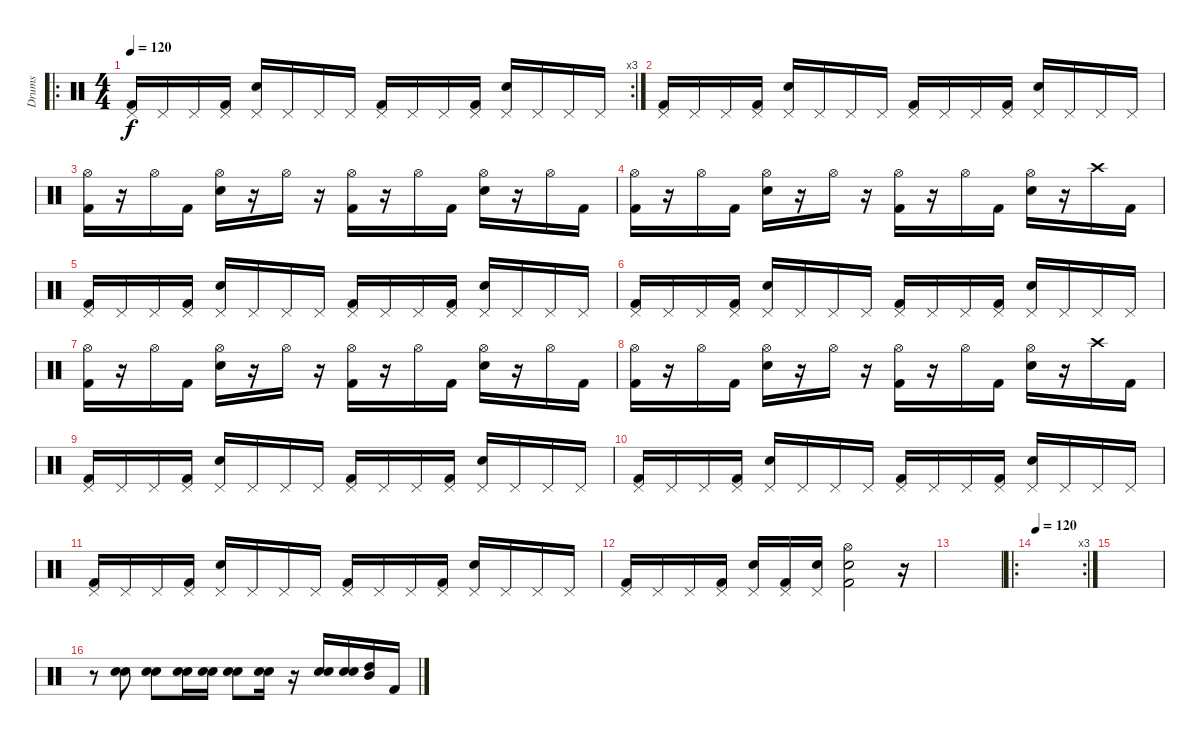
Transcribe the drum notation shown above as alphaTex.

\track ("Drums" "Drums") {instrument percussion}
\staff {score}
\articulation defaults
\ro
\rc 3
\ts (4 4)
\tempo 120
\clef neutral
\ks c
("Pedal Hi-Hat (hit)" "Kick (hit) 2").16{dy f volume 16} "Pedal Hi-Hat (hit)".16 "Pedal Hi-Hat (hit)".16 ("Pedal Hi-Hat (hit)" "Kick (hit) 2").16 ("Pedal Hi-Hat (hit)" "Electric Snare (hit)").16 "Pedal Hi-Hat (hit)".16 "Pedal Hi-Hat (hit)".16 "Pedal Hi-Hat (hit)".16 ("Pedal Hi-Hat (hit)" "Kick (hit) 2").16 "Pedal Hi-Hat (hit)".16 "Pedal Hi-Hat (hit)".16 ("Pedal Hi-Hat (hit)" "Kick (hit) 2").16 ("Pedal Hi-Hat (hit)" "Electric Snare (hit)").16 "Pedal Hi-Hat (hit)".16 "Pedal Hi-Hat (hit)".16 "Pedal Hi-Hat (hit)".16 |
("Pedal Hi-Hat (hit)" "Kick (hit) 2").16 "Pedal Hi-Hat (hit)".16 "Pedal Hi-Hat (hit)".16 ("Pedal Hi-Hat (hit)" "Kick (hit) 2").16 ("Pedal Hi-Hat (hit)" "Electric Snare (hit)").16 "Pedal Hi-Hat (hit)".16 "Pedal Hi-Hat (hit)".16 "Pedal Hi-Hat (hit)".16 ("Pedal Hi-Hat (hit)" "Kick (hit) 2").16 "Pedal Hi-Hat (hit)".16 "Pedal Hi-Hat (hit)".16 ("Pedal Hi-Hat (hit)" "Kick (hit) 2").16 ("Pedal Hi-Hat (hit)" "Electric Snare (hit)").16 "Pedal Hi-Hat (hit)".16 "Pedal Hi-Hat (hit)".16 "Pedal Hi-Hat (hit)".16 |
("Hi-Hat (open)" "Kick (hit) 2").16 r.16 "Hi-Hat (open)".16 "Kick (hit) 2".16 ("Hi-Hat (open)" "Electric Snare (hit)").16 r.16 "Hi-Hat (open)".16 r.16 ("Hi-Hat (open)" "Kick (hit) 2").16 r.16 "Hi-Hat (open)".16 "Kick (hit) 2".16 ("Hi-Hat (open)" "Electric Snare (hit)").16 r.16 "Hi-Hat (open)".16 "Kick (hit) 2".16 |
("Hi-Hat (open)" "Kick (hit) 2").16 r.16 "Hi-Hat (open)".16 "Kick (hit) 2".16 ("Hi-Hat (open)" "Electric Snare (hit)").16 r.16 "Hi-Hat (open)".16 r.16 ("Hi-Hat (open)" "Kick (hit) 2").16 r.16 "Hi-Hat (open)".16 "Kick (hit) 2".16 ("Hi-Hat (open)" "Electric Snare (hit)").16 r.16 "Crash high (hit)".16 "Kick (hit) 2".16 |
("Pedal Hi-Hat (hit)" "Kick (hit) 2").16{volume 16} "Pedal Hi-Hat (hit)".16 "Pedal Hi-Hat (hit)".16 ("Pedal Hi-Hat (hit)" "Kick (hit) 2").16 ("Pedal Hi-Hat (hit)" "Electric Snare (hit)").16 "Pedal Hi-Hat (hit)".16 "Pedal Hi-Hat (hit)".16 "Pedal Hi-Hat (hit)".16 ("Pedal Hi-Hat (hit)" "Kick (hit) 2").16 "Pedal Hi-Hat (hit)".16 "Pedal Hi-Hat (hit)".16 ("Pedal Hi-Hat (hit)" "Kick (hit) 2").16 ("Pedal Hi-Hat (hit)" "Electric Snare (hit)").16 "Pedal Hi-Hat (hit)".16 "Pedal Hi-Hat (hit)".16 "Pedal Hi-Hat (hit)".16 |
("Pedal Hi-Hat (hit)" "Kick (hit) 2").16 "Pedal Hi-Hat (hit)".16 "Pedal Hi-Hat (hit)".16 ("Pedal Hi-Hat (hit)" "Kick (hit) 2").16 ("Pedal Hi-Hat (hit)" "Electric Snare (hit)").16 "Pedal Hi-Hat (hit)".16 "Pedal Hi-Hat (hit)".16 "Pedal Hi-Hat (hit)".16 ("Pedal Hi-Hat (hit)" "Kick (hit) 2").16 "Pedal Hi-Hat (hit)".16 "Pedal Hi-Hat (hit)".16 ("Pedal Hi-Hat (hit)" "Kick (hit) 2").16 ("Pedal Hi-Hat (hit)" "Electric Snare (hit)").16 "Pedal Hi-Hat (hit)".16 "Pedal Hi-Hat (hit)".16 "Pedal Hi-Hat (hit)".16 |
("Hi-Hat (open)" "Kick (hit) 2").16 r.16 "Hi-Hat (open)".16 "Kick (hit) 2".16 ("Hi-Hat (open)" "Electric Snare (hit)").16 r.16 "Hi-Hat (open)".16 r.16 ("Hi-Hat (open)" "Kick (hit) 2").16 r.16 "Hi-Hat (open)".16 "Kick (hit) 2".16 ("Hi-Hat (open)" "Electric Snare (hit)").16 r.16 "Hi-Hat (open)".16 "Kick (hit) 2".16 |
("Hi-Hat (open)" "Kick (hit) 2").16 r.16 "Hi-Hat (open)".16 "Kick (hit) 2".16 ("Hi-Hat (open)" "Electric Snare (hit)").16 r.16 "Hi-Hat (open)".16 r.16 ("Hi-Hat (open)" "Kick (hit) 2").16 r.16 "Hi-Hat (open)".16 "Kick (hit) 2".16 ("Hi-Hat (open)" "Electric Snare (hit)").16 r.16 "Crash high (hit)".16 "Kick (hit) 2".16 |
("Pedal Hi-Hat (hit)" "Kick (hit) 2").16{volume 16} "Pedal Hi-Hat (hit)".16 "Pedal Hi-Hat (hit)".16 ("Pedal Hi-Hat (hit)" "Kick (hit) 2").16 ("Pedal Hi-Hat (hit)" "Electric Snare (hit)").16 "Pedal Hi-Hat (hit)".16 "Pedal Hi-Hat (hit)".16 "Pedal Hi-Hat (hit)".16 ("Pedal Hi-Hat (hit)" "Kick (hit) 2").16 "Pedal Hi-Hat (hit)".16 "Pedal Hi-Hat (hit)".16 ("Pedal Hi-Hat (hit)" "Kick (hit) 2").16 ("Pedal Hi-Hat (hit)" "Electric Snare (hit)").16 "Pedal Hi-Hat (hit)".16 "Pedal Hi-Hat (hit)".16 "Pedal Hi-Hat (hit)".16 |
("Pedal Hi-Hat (hit)" "Kick (hit) 2").16 "Pedal Hi-Hat (hit)".16 "Pedal Hi-Hat (hit)".16 ("Pedal Hi-Hat (hit)" "Kick (hit) 2").16 ("Pedal Hi-Hat (hit)" "Electric Snare (hit)").16 "Pedal Hi-Hat (hit)".16 "Pedal Hi-Hat (hit)".16 "Pedal Hi-Hat (hit)".16 ("Pedal Hi-Hat (hit)" "Kick (hit) 2").16 "Pedal Hi-Hat (hit)".16 "Pedal Hi-Hat (hit)".16 ("Pedal Hi-Hat (hit)" "Kick (hit) 2").16 ("Pedal Hi-Hat (hit)" "Electric Snare (hit)").16 "Pedal Hi-Hat (hit)".16 "Pedal Hi-Hat (hit)".16 "Pedal Hi-Hat (hit)".16 |
("Pedal Hi-Hat (hit)" "Kick (hit) 2").16 "Pedal Hi-Hat (hit)".16 "Pedal Hi-Hat (hit)".16 ("Pedal Hi-Hat (hit)" "Kick (hit) 2").16 ("Pedal Hi-Hat (hit)" "Electric Snare (hit)").16 "Pedal Hi-Hat (hit)".16 "Pedal Hi-Hat (hit)".16 "Pedal Hi-Hat (hit)".16 ("Pedal Hi-Hat (hit)" "Kick (hit) 2").16 "Pedal Hi-Hat (hit)".16 "Pedal Hi-Hat (hit)".16 ("Pedal Hi-Hat (hit)" "Kick (hit) 2").16 ("Pedal Hi-Hat (hit)" "Electric Snare (hit)").16 "Pedal Hi-Hat (hit)".16 "Pedal Hi-Hat (hit)".16 "Pedal Hi-Hat (hit)".16 |
("Pedal Hi-Hat (hit)" "Kick (hit) 2").16 "Pedal Hi-Hat (hit)".16 "Pedal Hi-Hat (hit)".16 ("Pedal Hi-Hat (hit)" "Kick (hit) 2").16 ("Pedal Hi-Hat (hit)" "Electric Snare (hit)").16 ("Pedal Hi-Hat (hit)" "Kick (hit) 2").16 ("Pedal Hi-Hat (hit)" "Electric Snare (hit)").16 ("Hi-Hat (open)" "Electric Snare (hit)" "Kick (hit) 2").2 r.16 |
|
\ro
\rc 3
\tempo 120
|
|
r.8 ("Electric Snare (hit)" "Snare (hit) 2").8 ("Electric Snare (hit)" "Snare (hit) 2").8 ("Electric Snare (hit)" "Snare (hit) 2").16 ("Electric Snare (hit)" "Snare (hit) 2").16 ("Electric Snare (hit)" "Snare (hit) 2").8 ("Electric Snare (hit)" "Snare (hit) 2").16 r.16 ("Electric Snare (hit)" "Snare (hit) 2").16 ("Electric Snare (hit)" "Snare (hit) 2").16 ("Mid Tom (hit)" "High Tom (hit)").16 "Kick (hit) 2".16
